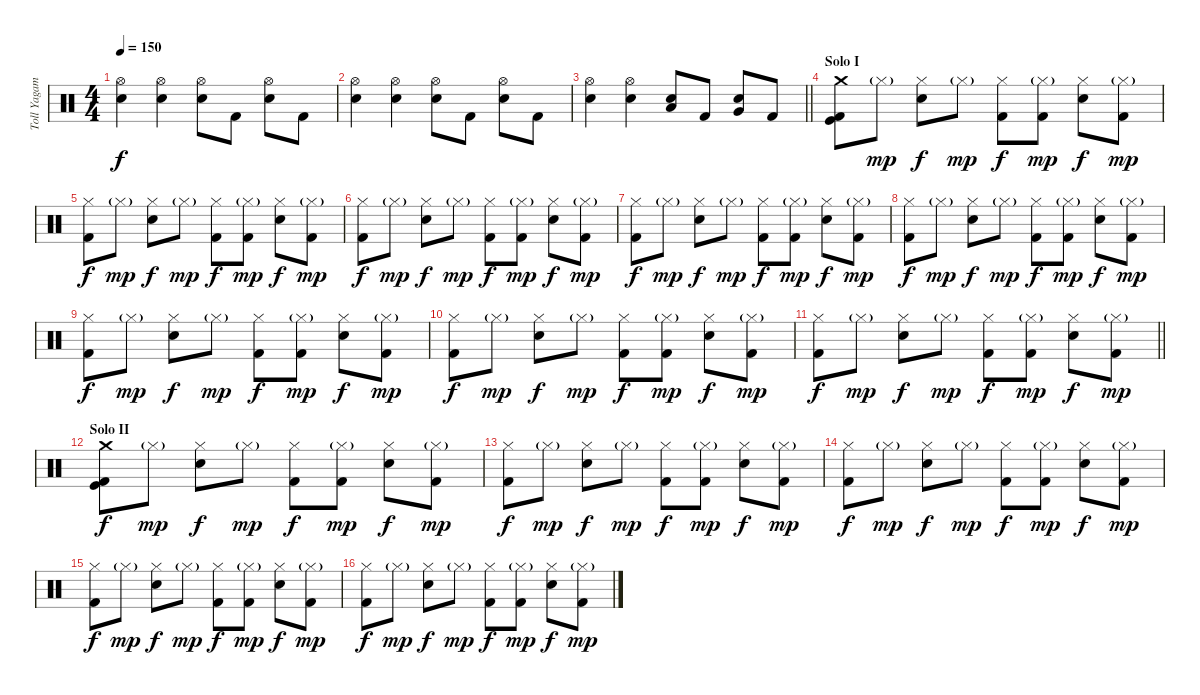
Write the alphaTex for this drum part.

\track ("Toll Yagami" "Toll Yagam") {instrument percussion}
\staff {score}
\articulation defaults
\ts (4 4)
\tempo 150
\clef neutral
\ks c
("Hi-Hat (open)" "Electric Snare (hit)").4{dy f} ("Hi-Hat (open)" "Electric Snare (hit)").4 ("Hi-Hat (open)" "Electric Snare (hit)").8 "Kick (hit) 2".8 ("Hi-Hat (open)" "Electric Snare (hit)").8 "Kick (hit) 2".8 |
("Hi-Hat (open)" "Electric Snare (hit)").4 ("Hi-Hat (open)" "Electric Snare (hit)").4 ("Hi-Hat (open)" "Electric Snare (hit)").8 "Kick (hit) 2".8 ("Hi-Hat (open)" "Electric Snare (hit)").8 "Kick (hit) 2".8 |
\barLineRight lightlight
("Hi-Hat (open)" "Electric Snare (hit)").4 ("Hi-Hat (open)" "Electric Snare (hit)").4 ("Low Tom (hit)" "Electric Snare (hit)").8 "Kick (hit) 2".8 ("Very Low Tom (hit)" "Electric Snare (hit)").8 "Kick (hit) 2".8 |
\section ("" "Solo I")
("Crash medium (hit)" "Kick (hit) 2" "Kick (hit)").8 "Hi-Hat (closed)"{g}.8{dy mp} ("Hi-Hat (closed)" "Electric Snare (hit)").8{dy f} "Hi-Hat (closed)"{g}.8{dy mp} ("Hi-Hat (closed)" "Kick (hit) 2").8{dy f} ("Hi-Hat (closed)"{g} "Kick (hit) 2").8{dy mp} ("Hi-Hat (closed)" "Electric Snare (hit)").8{dy f} ("Hi-Hat (closed)"{g} "Kick (hit) 2").8{dy mp} |
("Hi-Hat (closed)" "Kick (hit) 2").8{dy f} "Hi-Hat (closed)"{g}.8{dy mp} ("Hi-Hat (closed)" "Electric Snare (hit)").8{dy f} "Hi-Hat (closed)"{g}.8{dy mp} ("Hi-Hat (closed)" "Kick (hit) 2").8{dy f} ("Hi-Hat (closed)"{g} "Kick (hit) 2").8{dy mp} ("Hi-Hat (closed)" "Electric Snare (hit)").8{dy f} ("Hi-Hat (closed)"{g} "Kick (hit) 2").8{dy mp} |
("Hi-Hat (closed)" "Kick (hit) 2").8{dy f} "Hi-Hat (closed)"{g}.8{dy mp} ("Hi-Hat (closed)" "Electric Snare (hit)").8{dy f} "Hi-Hat (closed)"{g}.8{dy mp} ("Hi-Hat (closed)" "Kick (hit) 2").8{dy f} ("Hi-Hat (closed)"{g} "Kick (hit) 2").8{dy mp} ("Hi-Hat (closed)" "Electric Snare (hit)").8{dy f} ("Hi-Hat (closed)"{g} "Kick (hit) 2").8{dy mp} |
("Hi-Hat (closed)" "Kick (hit) 2").8{dy f} "Hi-Hat (closed)"{g}.8{dy mp} ("Hi-Hat (closed)" "Electric Snare (hit)").8{dy f} "Hi-Hat (closed)"{g}.8{dy mp} ("Hi-Hat (closed)" "Kick (hit) 2").8{dy f} ("Hi-Hat (closed)"{g} "Kick (hit) 2").8{dy mp} ("Hi-Hat (closed)" "Electric Snare (hit)").8{dy f} ("Hi-Hat (closed)"{g} "Kick (hit) 2").8{dy mp} |
("Hi-Hat (closed)" "Kick (hit) 2").8{dy f} "Hi-Hat (closed)"{g}.8{dy mp} ("Hi-Hat (closed)" "Electric Snare (hit)").8{dy f} "Hi-Hat (closed)"{g}.8{dy mp} ("Hi-Hat (closed)" "Kick (hit) 2").8{dy f} ("Hi-Hat (closed)"{g} "Kick (hit) 2").8{dy mp} ("Hi-Hat (closed)" "Electric Snare (hit)").8{dy f} ("Hi-Hat (closed)"{g} "Kick (hit) 2").8{dy mp} |
("Hi-Hat (closed)" "Kick (hit) 2").8{dy f} "Hi-Hat (closed)"{g}.8{dy mp} ("Hi-Hat (closed)" "Electric Snare (hit)").8{dy f} "Hi-Hat (closed)"{g}.8{dy mp} ("Hi-Hat (closed)" "Kick (hit) 2").8{dy f} ("Hi-Hat (closed)"{g} "Kick (hit) 2").8{dy mp} ("Hi-Hat (closed)" "Electric Snare (hit)").8{dy f} ("Hi-Hat (closed)"{g} "Kick (hit) 2").8{dy mp} |
("Hi-Hat (closed)" "Kick (hit) 2").8{dy f} "Hi-Hat (closed)"{g}.8{dy mp} ("Hi-Hat (closed)" "Electric Snare (hit)").8{dy f} "Hi-Hat (closed)"{g}.8{dy mp} ("Hi-Hat (closed)" "Kick (hit) 2").8{dy f} ("Hi-Hat (closed)"{g} "Kick (hit) 2").8{dy mp} ("Hi-Hat (closed)" "Electric Snare (hit)").8{dy f} ("Hi-Hat (closed)"{g} "Kick (hit) 2").8{dy mp} |
\barLineRight lightlight
("Hi-Hat (closed)" "Kick (hit) 2").8{dy f} "Hi-Hat (closed)"{g}.8{dy mp} ("Hi-Hat (closed)" "Electric Snare (hit)").8{dy f} "Hi-Hat (closed)"{g}.8{dy mp} ("Hi-Hat (closed)" "Kick (hit) 2").8{dy f} ("Hi-Hat (closed)"{g} "Kick (hit) 2").8{dy mp} ("Hi-Hat (closed)" "Electric Snare (hit)").8{dy f} ("Hi-Hat (closed)"{g} "Kick (hit) 2").8{dy mp} |
\section ("" "Solo II")
("Crash medium (hit)" "Kick (hit) 2" "Kick (hit)").8{dy f} "Hi-Hat (closed)"{g}.8{dy mp} ("Hi-Hat (closed)" "Electric Snare (hit)").8{dy f} "Hi-Hat (closed)"{g}.8{dy mp} ("Hi-Hat (closed)" "Kick (hit) 2").8{dy f} ("Hi-Hat (closed)"{g} "Kick (hit) 2").8{dy mp} ("Hi-Hat (closed)" "Electric Snare (hit)").8{dy f} ("Hi-Hat (closed)"{g} "Kick (hit) 2").8{dy mp} |
("Hi-Hat (closed)" "Kick (hit) 2").8{dy f} "Hi-Hat (closed)"{g}.8{dy mp} ("Hi-Hat (closed)" "Electric Snare (hit)").8{dy f} "Hi-Hat (closed)"{g}.8{dy mp} ("Hi-Hat (closed)" "Kick (hit) 2").8{dy f} ("Hi-Hat (closed)"{g} "Kick (hit) 2").8{dy mp} ("Hi-Hat (closed)" "Electric Snare (hit)").8{dy f} ("Hi-Hat (closed)"{g} "Kick (hit) 2").8{dy mp} |
("Hi-Hat (closed)" "Kick (hit) 2").8{dy f} "Hi-Hat (closed)"{g}.8{dy mp} ("Hi-Hat (closed)" "Electric Snare (hit)").8{dy f} "Hi-Hat (closed)"{g}.8{dy mp} ("Hi-Hat (closed)" "Kick (hit) 2").8{dy f} ("Hi-Hat (closed)"{g} "Kick (hit) 2").8{dy mp} ("Hi-Hat (closed)" "Electric Snare (hit)").8{dy f} ("Hi-Hat (closed)"{g} "Kick (hit) 2").8{dy mp} |
("Hi-Hat (closed)" "Kick (hit) 2").8{dy f} "Hi-Hat (closed)"{g}.8{dy mp} ("Hi-Hat (closed)" "Electric Snare (hit)").8{dy f} "Hi-Hat (closed)"{g}.8{dy mp} ("Hi-Hat (closed)" "Kick (hit) 2").8{dy f} ("Hi-Hat (closed)"{g} "Kick (hit) 2").8{dy mp} ("Hi-Hat (closed)" "Electric Snare (hit)").8{dy f} ("Hi-Hat (closed)"{g} "Kick (hit) 2").8{dy mp} |
("Hi-Hat (closed)" "Kick (hit) 2").8{dy f} "Hi-Hat (closed)"{g}.8{dy mp} ("Hi-Hat (closed)" "Electric Snare (hit)").8{dy f} "Hi-Hat (closed)"{g}.8{dy mp} ("Hi-Hat (closed)" "Kick (hit) 2").8{dy f} ("Hi-Hat (closed)"{g} "Kick (hit) 2").8{dy mp} ("Hi-Hat (closed)" "Electric Snare (hit)").8{dy f} ("Hi-Hat (closed)"{g} "Kick (hit) 2").8{dy mp}
